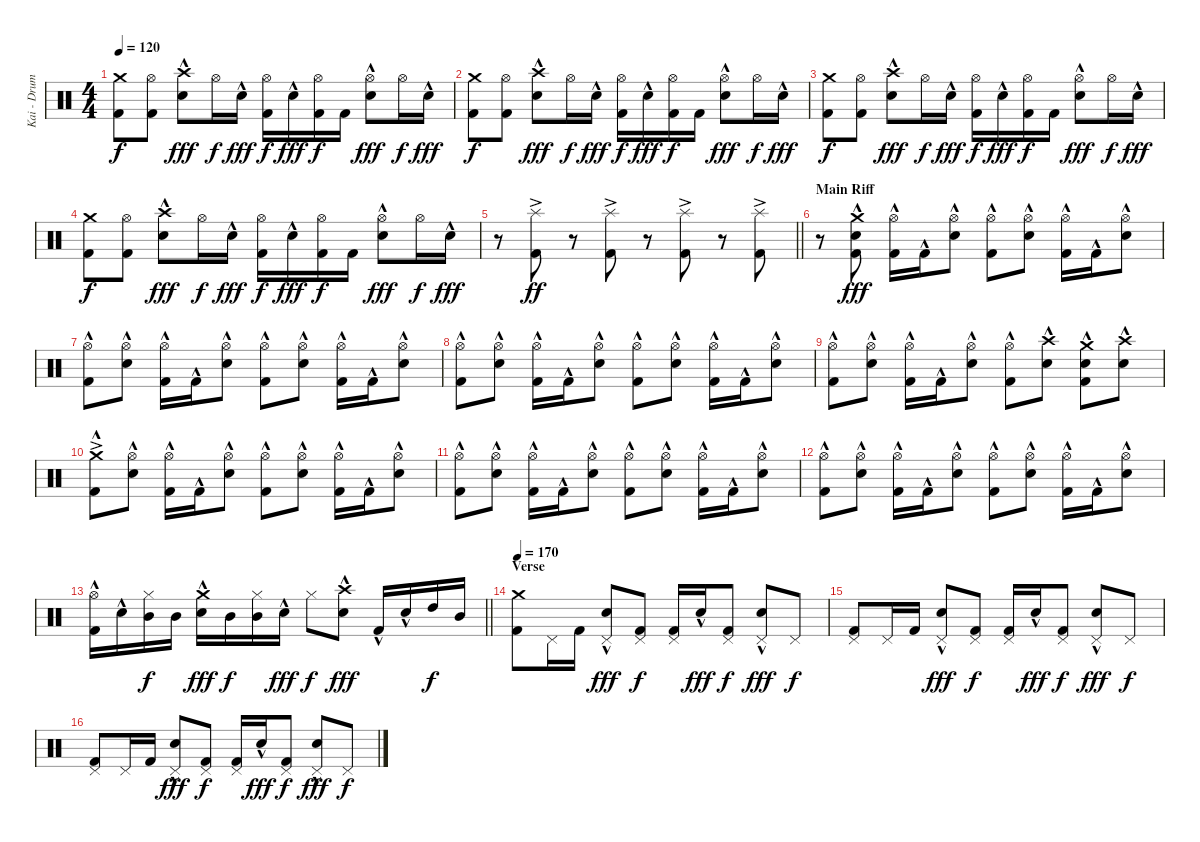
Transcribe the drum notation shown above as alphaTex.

\track ("Kai - Drums" "Kai - Drum") {instrument percussion}
\staff {score}
\articulation defaults
\ts (4 4)
\tempo 120
\clef neutral
\ks c
("Crash medium (hit)" "Kick (hit) 2").8{dy f} ("Hi-Hat (open)" "Kick (hit) 2").8 ("Crash high (hit)" "Electric Snare (hit)"{hac}).8{dy fff} "Hi-Hat (open)".16{dy f} "Electric Snare (hit)"{hac}.16{dy fff} ("Hi-Hat (open)" "Kick (hit) 2").16{dy f} "Electric Snare (hit)"{hac}.16{dy fff} ("Hi-Hat (open)" "Kick (hit) 2").16{dy f} "Kick (hit) 2".16 ("Hi-Hat (open)" "Electric Snare (hit)"{hac}).8{dy fff} "Hi-Hat (open)".16{dy f} "Electric Snare (hit)"{hac}.16{dy fff} |
("Crash medium (hit)" "Kick (hit) 2").8{dy f} ("Hi-Hat (open)" "Kick (hit) 2").8 ("Crash high (hit)" "Electric Snare (hit)"{hac}).8{dy fff} "Hi-Hat (open)".16{dy f} "Electric Snare (hit)"{hac}.16{dy fff} ("Hi-Hat (open)" "Kick (hit) 2").16{dy f} "Electric Snare (hit)"{hac}.16{dy fff} ("Hi-Hat (open)" "Kick (hit) 2").16{dy f} "Kick (hit) 2".16 ("Hi-Hat (open)" "Electric Snare (hit)"{hac}).8{dy fff} "Hi-Hat (open)".16{dy f} "Electric Snare (hit)"{hac}.16{dy fff} |
("Crash medium (hit)" "Kick (hit) 2").8{dy f} ("Hi-Hat (open)" "Kick (hit) 2").8 ("Crash high (hit)" "Electric Snare (hit)"{hac}).8{dy fff} "Hi-Hat (open)".16{dy f} "Electric Snare (hit)"{hac}.16{dy fff} ("Hi-Hat (open)" "Kick (hit) 2").16{dy f} "Electric Snare (hit)"{hac}.16{dy fff} ("Hi-Hat (open)" "Kick (hit) 2").16{dy f} "Kick (hit) 2".16 ("Hi-Hat (open)" "Electric Snare (hit)"{hac}).8{dy fff} "Hi-Hat (open)".16{dy f} "Electric Snare (hit)"{hac}.16{dy fff} |
("Crash medium (hit)" "Kick (hit) 2").8{dy f} ("Hi-Hat (open)" "Kick (hit) 2").8 ("Crash high (hit)" "Electric Snare (hit)"{hac}).8{dy fff} "Hi-Hat (open)".16{dy f} "Electric Snare (hit)"{hac}.16{dy fff} ("Hi-Hat (open)" "Kick (hit) 2").16{dy f} "Electric Snare (hit)"{hac}.16{dy fff} ("Hi-Hat (open)" "Kick (hit) 2").16{dy f} "Kick (hit) 2".16 ("Hi-Hat (open)" "Electric Snare (hit)"{hac}).8{dy fff} "Hi-Hat (open)".16{dy f} "Electric Snare (hit)"{hac}.16{dy fff} |
\barLineRight lightlight
r.8 ("Splash (hit)"{ac} "Kick (hit) 2").8{dy ff} r.8 ("Splash (hit)"{ac} "Kick (hit) 2").8 r.8 ("Splash (hit)"{ac} "Kick (hit) 2").8 r.8 ("Splash (hit)"{ac} "Kick (hit) 2").8 |
\section ("" "Main Riff")
r.8 ("Crash medium (hit)"{hac} "Electric Snare (hit)"{hac} "Kick (hit) 2").8{dy fff} ("Hi-Hat (open)" "Kick (hit) 2"{hac}).16 "Kick (hit) 2"{hac}.16 ("Hi-Hat (open)" "Electric Snare (hit)"{hac}).8 ("Hi-Hat (open)" "Kick (hit) 2"{hac}).8 ("Hi-Hat (open)" "Electric Snare (hit)"{hac}).8 ("Hi-Hat (open)" "Kick (hit) 2"{hac}).16 "Kick (hit) 2"{hac}.16 ("Hi-Hat (open)" "Electric Snare (hit)"{hac}).8 |
("Hi-Hat (open)" "Kick (hit) 2"{hac}).8 ("Hi-Hat (open)" "Electric Snare (hit)"{hac}).8 ("Hi-Hat (open)" "Kick (hit) 2"{hac}).16 "Kick (hit) 2"{hac}.16 ("Hi-Hat (open)" "Electric Snare (hit)"{hac}).8 ("Hi-Hat (open)" "Kick (hit) 2"{hac}).8 ("Hi-Hat (open)" "Electric Snare (hit)"{hac}).8 ("Hi-Hat (open)" "Kick (hit) 2"{hac}).16 "Kick (hit) 2"{hac}.16 ("Hi-Hat (open)" "Electric Snare (hit)"{hac}).8 |
("Hi-Hat (open)" "Kick (hit) 2"{hac}).8 ("Hi-Hat (open)" "Electric Snare (hit)"{hac}).8 ("Hi-Hat (open)" "Kick (hit) 2"{hac}).16 "Kick (hit) 2"{hac}.16 ("Hi-Hat (open)" "Electric Snare (hit)"{hac}).8 ("Hi-Hat (open)" "Kick (hit) 2"{hac}).8 ("Hi-Hat (open)" "Electric Snare (hit)"{hac}).8 ("Hi-Hat (open)" "Kick (hit) 2"{hac}).16 "Kick (hit) 2"{hac}.16 ("Hi-Hat (open)" "Electric Snare (hit)"{hac}).8 |
("Hi-Hat (open)" "Kick (hit) 2"{hac}).8 ("Hi-Hat (open)" "Electric Snare (hit)"{hac}).8 ("Hi-Hat (open)" "Kick (hit) 2"{hac}).16 "Kick (hit) 2"{hac}.16 ("Hi-Hat (open)" "Electric Snare (hit)"{hac}).8 ("Hi-Hat (open)" "Kick (hit) 2"{hac}).8 ("Crash high (hit)" "Electric Snare (hit)"{hac}).8 ("Crash medium (hit)" "Electric Snare (hit)" "Kick (hit) 2"{hac}).8 ("Crash high (hit)" "Electric Snare (hit)"{hac}).8 |
("Crash medium (hit)"{ac} "Kick (hit) 2"{hac}).8 ("Hi-Hat (open)" "Electric Snare (hit)"{hac}).8 ("Hi-Hat (open)" "Kick (hit) 2"{hac}).16 "Kick (hit) 2"{hac}.16 ("Hi-Hat (open)" "Electric Snare (hit)"{hac}).8 ("Hi-Hat (open)" "Kick (hit) 2"{hac}).8 ("Hi-Hat (open)" "Electric Snare (hit)"{hac}).8 ("Hi-Hat (open)" "Kick (hit) 2"{hac}).16 "Kick (hit) 2"{hac}.16 ("Hi-Hat (open)" "Electric Snare (hit)"{hac}).8 |
("Hi-Hat (open)" "Kick (hit) 2"{hac}).8 ("Hi-Hat (open)" "Electric Snare (hit)"{hac}).8 ("Hi-Hat (open)" "Kick (hit) 2"{hac}).16 "Kick (hit) 2"{hac}.16 ("Hi-Hat (open)" "Electric Snare (hit)"{hac}).8 ("Hi-Hat (open)" "Kick (hit) 2"{hac}).8 ("Hi-Hat (open)" "Electric Snare (hit)"{hac}).8 ("Hi-Hat (open)" "Kick (hit) 2"{hac}).16 "Kick (hit) 2"{hac}.16 ("Hi-Hat (open)" "Electric Snare (hit)"{hac}).8 |
("Hi-Hat (open)" "Kick (hit) 2"{hac}).8 ("Hi-Hat (open)" "Electric Snare (hit)"{hac}).8 ("Hi-Hat (open)" "Kick (hit) 2"{hac}).16 "Kick (hit) 2"{hac}.16 ("Hi-Hat (open)" "Electric Snare (hit)"{hac}).8 ("Hi-Hat (open)" "Kick (hit) 2"{hac}).8 ("Hi-Hat (open)" "Electric Snare (hit)"{hac}).8 ("Hi-Hat (open)" "Kick (hit) 2"{hac}).16 "Kick (hit) 2"{hac}.16 ("Hi-Hat (open)" "Electric Snare (hit)"{hac}).8 |
\barLineRight lightlight
("Hi-Hat (open)" "Kick (hit) 2"{hac}).16 "Electric Snare (hit)"{hac}.16 ("Hi-Hat (closed)" "Mid Tom (hit)").16{dy f} "Mid Tom (hit)".16 ("Crash medium (hit)" "Electric Snare (hit)"{hac}).16{dy fff} "Mid Tom (hit)".16{dy f} ("Hi-Hat (closed)" "Mid Tom (hit)").16 "Electric Snare (hit)"{hac}.16{dy fff} "Hi-Hat (closed)".8{dy f} ("Crash high (hit)"{hac} "Electric Snare (hit)"{hac}).8{dy fff} "Kick (hit) 2"{hac}.16 "Electric Snare (hit)"{hac}.16 "High Tom (hit)".16{dy f} "Mid Tom (hit)".16 |
\section ("" "Verse")
\tempo 170
("Crash medium (hit)" "Kick (hit) 2").8 "Pedal Hi-Hat (hit)".16 "Kick (hit) 2".16 ("Pedal Hi-Hat (hit)" "Electric Snare (hit)"{hac}).8{dy fff} ("Pedal Hi-Hat (hit)" "Kick (hit) 2").8{dy f} ("Pedal Hi-Hat (hit)" "Kick (hit) 2").16 "Electric Snare (hit)"{hac}.16{dy fff} ("Pedal Hi-Hat (hit)" "Kick (hit) 2").8{dy f} ("Pedal Hi-Hat (hit)" "Electric Snare (hit)"{hac}).8{dy fff} "Pedal Hi-Hat (hit)".8{dy f} |
("Pedal Hi-Hat (hit)" "Kick (hit) 2").8 "Pedal Hi-Hat (hit)".16 "Kick (hit) 2".16 ("Pedal Hi-Hat (hit)" "Electric Snare (hit)"{hac}).8{dy fff} ("Pedal Hi-Hat (hit)" "Kick (hit) 2").8{dy f} ("Pedal Hi-Hat (hit)" "Kick (hit) 2").16 "Electric Snare (hit)"{hac}.16{dy fff} ("Pedal Hi-Hat (hit)" "Kick (hit) 2").8{dy f} ("Pedal Hi-Hat (hit)" "Electric Snare (hit)"{hac}).8{dy fff} "Pedal Hi-Hat (hit)".8{dy f} |
("Pedal Hi-Hat (hit)" "Kick (hit) 2").8 "Pedal Hi-Hat (hit)".16 "Kick (hit) 2".16 ("Pedal Hi-Hat (hit)" "Electric Snare (hit)"{hac}).8{dy fff} ("Pedal Hi-Hat (hit)" "Kick (hit) 2").8{dy f} ("Pedal Hi-Hat (hit)" "Kick (hit) 2").16 "Electric Snare (hit)"{hac}.16{dy fff} ("Pedal Hi-Hat (hit)" "Kick (hit) 2").8{dy f} ("Pedal Hi-Hat (hit)" "Electric Snare (hit)"{hac}).8{dy fff} "Pedal Hi-Hat (hit)".8{dy f}
